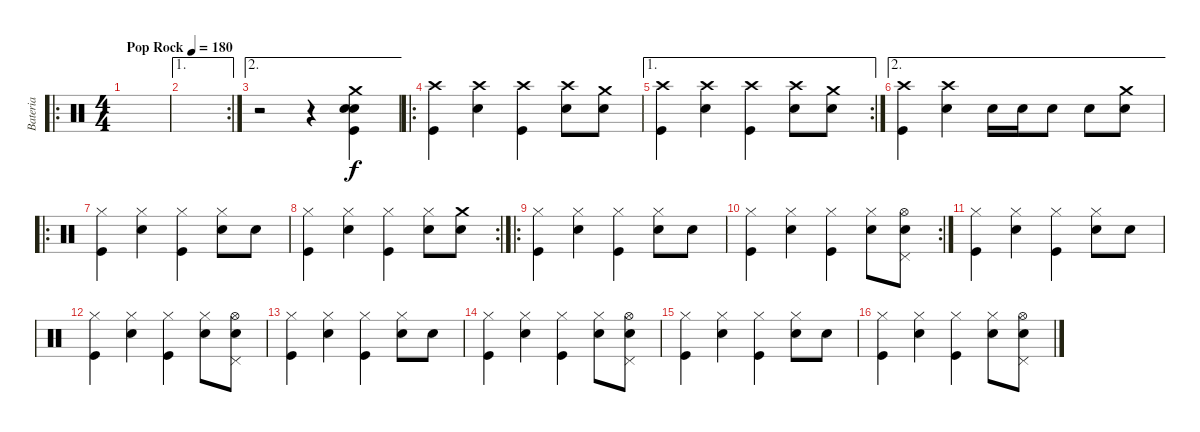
\track ("Bateria" "Bateria") {instrument percussion}
\staff {score}
\articulation defaults
\ro
\ts (4 4)
\tempo (180 "Pop Rock")
\clef neutral
\ks c
|
\ae 1
\rc 2
|
\ae 2
r.2 r.4 ("Crash medium (hit)" "Snare (hit) 2" "Kick (hit)" "Snare (hit) 2").4 |
\ro
("Crash high (hit)" "Kick (hit)").4 ("Crash high (hit)" "Electric Snare (hit)").4 ("Crash high (hit)" "Kick (hit)").4 ("Crash high (hit)" "Electric Snare (hit)").8 ("Crash medium (hit)" "Electric Snare (hit)").8 |
\ae 1
\rc 2
("Crash high (hit)" "Kick (hit)").4 ("Crash high (hit)" "Electric Snare (hit)").4 ("Crash high (hit)" "Kick (hit)").4 ("Crash high (hit)" "Electric Snare (hit)").8 ("Crash medium (hit)" "Electric Snare (hit)").8 |
\ae 2
("Crash high (hit)" "Kick (hit)").4 ("Crash high (hit)" "Electric Snare (hit)").4 "Electric Snare (hit)".16 "Electric Snare (hit)".16 "Electric Snare (hit)".8 "Electric Snare (hit)".8 ("Crash medium (hit)" "Electric Snare (hit)").8 |
\ro
("Hi-Hat (closed)" "Kick (hit)").4 ("Hi-Hat (closed)" "Electric Snare (hit)").4 ("Hi-Hat (closed)" "Kick (hit)").4 ("Hi-Hat (closed)" "Electric Snare (hit)").8 "Electric Snare (hit)".8 |
\rc 2
("Hi-Hat (closed)" "Kick (hit)").4 ("Hi-Hat (closed)" "Electric Snare (hit)").4 ("Hi-Hat (closed)" "Kick (hit)").4 ("Hi-Hat (closed)" "Electric Snare (hit)").8 ("Crash medium (hit)" "Electric Snare (hit)").8 |
\ro
("Hi-Hat (closed)" "Kick (hit)").4 ("Hi-Hat (closed)" "Electric Snare (hit)").4 ("Hi-Hat (closed)" "Kick (hit)").4 ("Hi-Hat (closed)" "Electric Snare (hit)").8 "Electric Snare (hit)".8 |
\rc 2
("Hi-Hat (closed)" "Kick (hit)").4 ("Hi-Hat (closed)" "Electric Snare (hit)").4 ("Hi-Hat (closed)" "Kick (hit)").4 ("Hi-Hat (closed)" "Electric Snare (hit)").8 ("Hi-Hat (open)" "Pedal Hi-Hat (hit)" "Electric Snare (hit)").8 |
("Hi-Hat (closed)" "Kick (hit)").4 ("Hi-Hat (closed)" "Electric Snare (hit)").4 ("Hi-Hat (closed)" "Kick (hit)").4 ("Hi-Hat (closed)" "Electric Snare (hit)").8 "Electric Snare (hit)".8 |
("Hi-Hat (closed)" "Kick (hit)").4 ("Hi-Hat (closed)" "Electric Snare (hit)").4 ("Hi-Hat (closed)" "Kick (hit)").4 ("Hi-Hat (closed)" "Electric Snare (hit)").8 ("Hi-Hat (open)" "Pedal Hi-Hat (hit)" "Electric Snare (hit)").8 |
("Hi-Hat (closed)" "Kick (hit)").4 ("Hi-Hat (closed)" "Electric Snare (hit)").4 ("Hi-Hat (closed)" "Kick (hit)").4 ("Hi-Hat (closed)" "Electric Snare (hit)").8 "Electric Snare (hit)".8 |
("Hi-Hat (closed)" "Kick (hit)").4 ("Hi-Hat (closed)" "Electric Snare (hit)").4 ("Hi-Hat (closed)" "Kick (hit)").4 ("Hi-Hat (closed)" "Electric Snare (hit)").8 ("Hi-Hat (open)" "Pedal Hi-Hat (hit)" "Electric Snare (hit)").8 |
("Hi-Hat (closed)" "Kick (hit)").4 ("Hi-Hat (closed)" "Electric Snare (hit)").4 ("Hi-Hat (closed)" "Kick (hit)").4 ("Hi-Hat (closed)" "Electric Snare (hit)").8 "Electric Snare (hit)".8 |
("Hi-Hat (closed)" "Kick (hit)").4 ("Hi-Hat (closed)" "Electric Snare (hit)").4 ("Hi-Hat (closed)" "Kick (hit)").4 ("Hi-Hat (closed)" "Electric Snare (hit)").8 ("Hi-Hat (open)" "Pedal Hi-Hat (hit)" "Electric Snare (hit)").8
